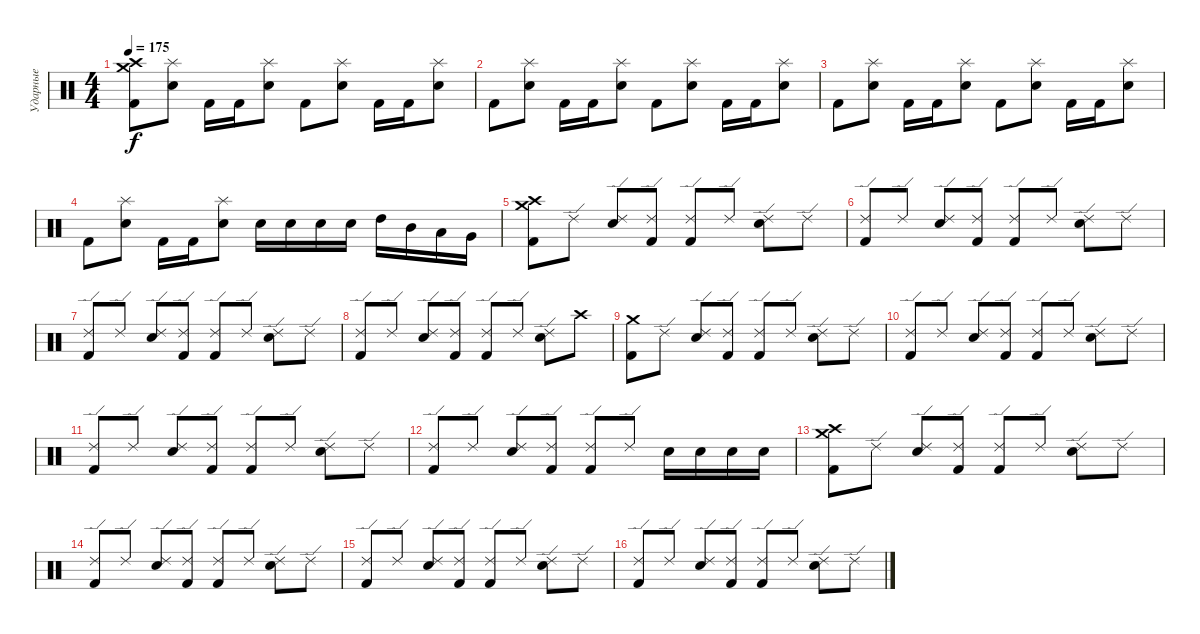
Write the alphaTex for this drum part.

\track ("Ударные" "Ударные") {instrument percussion}
\staff {score}
\articulation defaults
\ts (4 4)
\tempo 175
\clef neutral
\ks c
("Crash medium (hit)" "Crash high (hit)" "Kick (hit) 2").8{dy f} ("Splash (hit)" "Electric Snare (hit)").8 "Kick (hit) 2".16 "Kick (hit) 2".16 ("Splash (hit)" "Electric Snare (hit)").8 "Kick (hit) 2".8 ("Splash (hit)" "Electric Snare (hit)").8 "Kick (hit) 2".16 "Kick (hit) 2".16 ("Splash (hit)" "Electric Snare (hit)").8 |
"Kick (hit) 2".8 ("Splash (hit)" "Electric Snare (hit)").8 "Kick (hit) 2".16 "Kick (hit) 2".16 ("Splash (hit)" "Electric Snare (hit)").8 "Kick (hit) 2".8 ("Splash (hit)" "Electric Snare (hit)").8 "Kick (hit) 2".16 "Kick (hit) 2".16 ("Splash (hit)" "Electric Snare (hit)").8 |
"Kick (hit) 2".8 ("Splash (hit)" "Electric Snare (hit)").8 "Kick (hit) 2".16 "Kick (hit) 2".16 ("Splash (hit)" "Electric Snare (hit)").8 "Kick (hit) 2".8 ("Splash (hit)" "Electric Snare (hit)").8 "Kick (hit) 2".16 "Kick (hit) 2".16 ("Splash (hit)" "Electric Snare (hit)").8 |
"Kick (hit) 2".8 ("Splash (hit)" "Electric Snare (hit)").8 "Kick (hit) 2".16 "Kick (hit) 2".16 ("Splash (hit)" "Electric Snare (hit)").8 "Electric Snare (hit)".16 "Electric Snare (hit)".16 "Electric Snare (hit)".16 "Electric Snare (hit)".16 "High Tom (hit)".16 "Mid Tom (hit)".16 "Low Tom (hit)".16 "Very Low Tom (hit)".16 |
("Crash medium (hit)" "Crash high (hit)" "Kick (hit) 2").8 "Ride (edge) 2".8 ("Ride (edge) 2" "Electric Snare (hit)").8 ("Ride (edge) 2" "Kick (hit) 2").8 ("Ride (edge) 2" "Kick (hit) 2").8 "Ride (edge) 2".8 ("Ride (edge) 2" "Electric Snare (hit)").8 "Ride (edge) 2".8 |
("Ride (edge) 2" "Kick (hit) 2").8 "Ride (edge) 2".8 ("Ride (edge) 2" "Electric Snare (hit)").8 ("Ride (edge) 2" "Kick (hit) 2").8 ("Ride (edge) 2" "Kick (hit) 2").8 "Ride (edge) 2".8 ("Ride (edge) 2" "Electric Snare (hit)").8 "Ride (edge) 2".8 |
("Ride (edge) 2" "Kick (hit) 2").8 "Ride (edge) 2".8 ("Ride (edge) 2" "Electric Snare (hit)").8 ("Ride (edge) 2" "Kick (hit) 2").8 ("Ride (edge) 2" "Kick (hit) 2").8 "Ride (edge) 2".8 ("Ride (edge) 2" "Electric Snare (hit)").8 "Ride (edge) 2".8 |
("Ride (edge) 2" "Kick (hit) 2").8 "Ride (edge) 2".8 ("Ride (edge) 2" "Electric Snare (hit)").8 ("Ride (edge) 2" "Kick (hit) 2").8 ("Ride (edge) 2" "Kick (hit) 2").8 "Ride (edge) 2".8 ("Ride (edge) 2" "Electric Snare (hit)").8 "Crash high (hit)".8 |
("Crash medium (hit)" "Kick (hit) 2").8 "Ride (edge) 2".8 ("Ride (edge) 2" "Electric Snare (hit)").8 ("Ride (edge) 2" "Kick (hit) 2").8 ("Ride (edge) 2" "Kick (hit) 2").8 "Ride (edge) 2".8 ("Ride (edge) 2" "Electric Snare (hit)").8 "Ride (edge) 2".8 |
("Ride (edge) 2" "Kick (hit) 2").8 "Ride (edge) 2".8 ("Ride (edge) 2" "Electric Snare (hit)").8 ("Ride (edge) 2" "Kick (hit) 2").8 ("Ride (edge) 2" "Kick (hit) 2").8 "Ride (edge) 2".8 ("Ride (edge) 2" "Electric Snare (hit)").8 "Ride (edge) 2".8 |
("Ride (edge) 2" "Kick (hit) 2").8 "Ride (edge) 2".8 ("Ride (edge) 2" "Electric Snare (hit)").8 ("Ride (edge) 2" "Kick (hit) 2").8 ("Ride (edge) 2" "Kick (hit) 2").8 "Ride (edge) 2".8 ("Ride (edge) 2" "Electric Snare (hit)").8 "Ride (edge) 2".8 |
("Ride (edge) 2" "Kick (hit) 2").8 "Ride (edge) 2".8 ("Ride (edge) 2" "Electric Snare (hit)").8 ("Ride (edge) 2" "Kick (hit) 2").8 ("Ride (edge) 2" "Kick (hit) 2").8 "Ride (edge) 2".8 "Electric Snare (hit)".16 "Electric Snare (hit)".16 "Electric Snare (hit)".16 "Electric Snare (hit)".16 |
("Crash medium (hit)" "Crash high (hit)" "Kick (hit) 2").8 "Ride (edge) 2".8 ("Ride (edge) 2" "Electric Snare (hit)").8 ("Ride (edge) 2" "Kick (hit) 2").8 ("Ride (edge) 2" "Kick (hit) 2").8 "Ride (edge) 2".8 ("Ride (edge) 2" "Electric Snare (hit)").8 "Ride (edge) 2".8 |
("Ride (edge) 2" "Kick (hit) 2").8 "Ride (edge) 2".8 ("Ride (edge) 2" "Electric Snare (hit)").8 ("Ride (edge) 2" "Kick (hit) 2").8 ("Ride (edge) 2" "Kick (hit) 2").8 "Ride (edge) 2".8 ("Ride (edge) 2" "Electric Snare (hit)").8 "Ride (edge) 2".8 |
("Ride (edge) 2" "Kick (hit) 2").8 "Ride (edge) 2".8 ("Ride (edge) 2" "Electric Snare (hit)").8 ("Ride (edge) 2" "Kick (hit) 2").8 ("Ride (edge) 2" "Kick (hit) 2").8 "Ride (edge) 2".8 ("Ride (edge) 2" "Electric Snare (hit)").8 "Ride (edge) 2".8 |
("Ride (edge) 2" "Kick (hit) 2").8 "Ride (edge) 2".8 ("Ride (edge) 2" "Electric Snare (hit)").8 ("Ride (edge) 2" "Kick (hit) 2").8 ("Ride (edge) 2" "Kick (hit) 2").8 "Ride (edge) 2".8 ("Ride (edge) 2" "Electric Snare (hit)").8 "Ride (edge) 2".8
